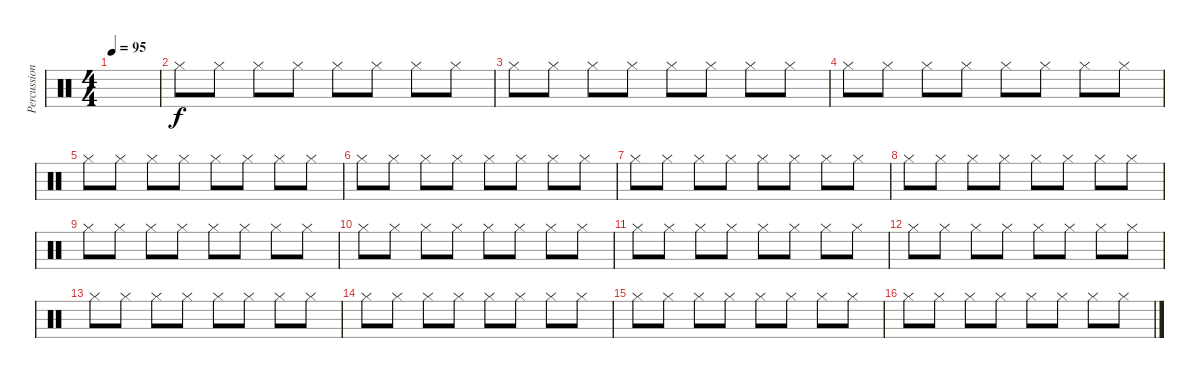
\track ("Percussions" "Percussion") {instrument percussion}
\staff {score}
\articulation defaults
\ts (4 4)
\tempo 95
\clef neutral
\ks c
|
"Hi-Hat (closed)".8 "Hi-Hat (closed)".8 "Hi-Hat (closed)".8 "Hi-Hat (closed)".8 "Hi-Hat (closed)".8 "Hi-Hat (closed)".8 "Hi-Hat (closed)".8 "Hi-Hat (closed)".8 |
"Hi-Hat (closed)".8 "Hi-Hat (closed)".8 "Hi-Hat (closed)".8 "Hi-Hat (closed)".8 "Hi-Hat (closed)".8 "Hi-Hat (closed)".8 "Hi-Hat (closed)".8 "Hi-Hat (closed)".8 |
"Hi-Hat (closed)".8 "Hi-Hat (closed)".8 "Hi-Hat (closed)".8 "Hi-Hat (closed)".8 "Hi-Hat (closed)".8 "Hi-Hat (closed)".8 "Hi-Hat (closed)".8 "Hi-Hat (closed)".8 |
"Hi-Hat (closed)".8 "Hi-Hat (closed)".8 "Hi-Hat (closed)".8 "Hi-Hat (closed)".8 "Hi-Hat (closed)".8 "Hi-Hat (closed)".8 "Hi-Hat (closed)".8 "Hi-Hat (closed)".8 |
"Hi-Hat (closed)".8 "Hi-Hat (closed)".8 "Hi-Hat (closed)".8 "Hi-Hat (closed)".8 "Hi-Hat (closed)".8 "Hi-Hat (closed)".8 "Hi-Hat (closed)".8 "Hi-Hat (closed)".8 |
"Hi-Hat (closed)".8 "Hi-Hat (closed)".8 "Hi-Hat (closed)".8 "Hi-Hat (closed)".8 "Hi-Hat (closed)".8 "Hi-Hat (closed)".8 "Hi-Hat (closed)".8 "Hi-Hat (closed)".8 |
"Hi-Hat (closed)".8 "Hi-Hat (closed)".8 "Hi-Hat (closed)".8 "Hi-Hat (closed)".8 "Hi-Hat (closed)".8 "Hi-Hat (closed)".8 "Hi-Hat (closed)".8 "Hi-Hat (closed)".8 |
"Hi-Hat (closed)".8 "Hi-Hat (closed)".8 "Hi-Hat (closed)".8 "Hi-Hat (closed)".8 "Hi-Hat (closed)".8 "Hi-Hat (closed)".8 "Hi-Hat (closed)".8 "Hi-Hat (closed)".8 |
"Hi-Hat (closed)".8 "Hi-Hat (closed)".8 "Hi-Hat (closed)".8 "Hi-Hat (closed)".8 "Hi-Hat (closed)".8 "Hi-Hat (closed)".8 "Hi-Hat (closed)".8 "Hi-Hat (closed)".8 |
"Hi-Hat (closed)".8 "Hi-Hat (closed)".8 "Hi-Hat (closed)".8 "Hi-Hat (closed)".8 "Hi-Hat (closed)".8 "Hi-Hat (closed)".8 "Hi-Hat (closed)".8 "Hi-Hat (closed)".8 |
"Hi-Hat (closed)".8 "Hi-Hat (closed)".8 "Hi-Hat (closed)".8 "Hi-Hat (closed)".8 "Hi-Hat (closed)".8 "Hi-Hat (closed)".8 "Hi-Hat (closed)".8 "Hi-Hat (closed)".8 |
"Hi-Hat (closed)".8 "Hi-Hat (closed)".8 "Hi-Hat (closed)".8 "Hi-Hat (closed)".8 "Hi-Hat (closed)".8 "Hi-Hat (closed)".8 "Hi-Hat (closed)".8 "Hi-Hat (closed)".8 |
"Hi-Hat (closed)".8 "Hi-Hat (closed)".8 "Hi-Hat (closed)".8 "Hi-Hat (closed)".8 "Hi-Hat (closed)".8 "Hi-Hat (closed)".8 "Hi-Hat (closed)".8 "Hi-Hat (closed)".8 |
"Hi-Hat (closed)".8 "Hi-Hat (closed)".8 "Hi-Hat (closed)".8 "Hi-Hat (closed)".8 "Hi-Hat (closed)".8 "Hi-Hat (closed)".8 "Hi-Hat (closed)".8 "Hi-Hat (closed)".8 |
"Hi-Hat (closed)".8 "Hi-Hat (closed)".8 "Hi-Hat (closed)".8 "Hi-Hat (closed)".8 "Hi-Hat (closed)".8 "Hi-Hat (closed)".8 "Hi-Hat (closed)".8 "Hi-Hat (closed)".8
